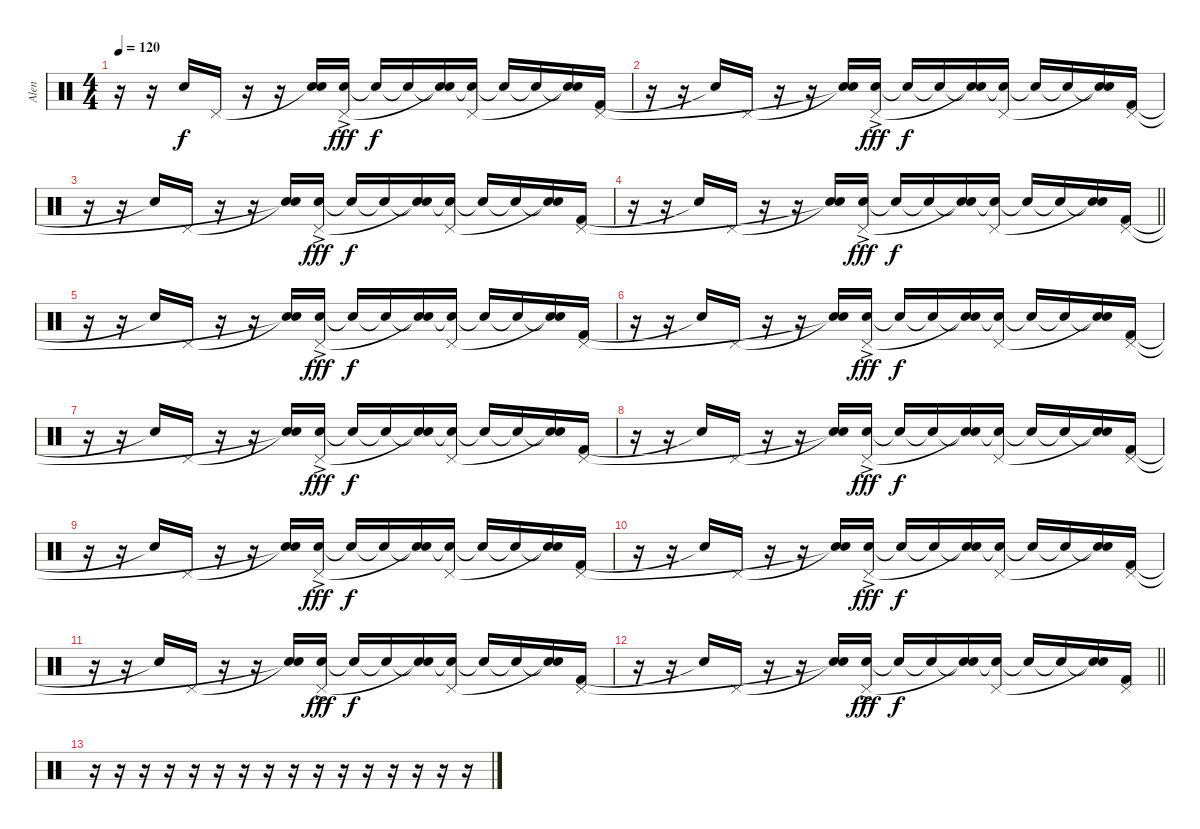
\track ("Alen" "Alen") {instrument percussion}
\staff {score}
\articulation defaults
\ts (4 4)
\tempo 120
\clef neutral
\ks c
r.16{dy f} r.16 "Snare (hit)"{t}.16 "Pedal Hi-Hat (hit)".16 r.16 r.16 ("Snare (hit)"{t} "Snare (hit)"{t}).16 ("Snare (hit) 2"{ac} "Pedal Hi-Hat (hit)").16{dy fff} "Snare (hit)"{t}.16{dy f} "Snare (hit)"{t}.16 ("Snare (hit)"{t} "Snare (hit)"{t}).16 ("Snare (hit)"{t} "Pedal Hi-Hat (hit)").16 "Snare (hit)"{t}.16 "Snare (hit)"{t}.16 ("Snare (hit)"{t} "Snare (hit)"{t}).16 ("Kick (hit) 2" "Pedal Hi-Hat (hit)").16 |
r.16 r.16 "Snare (hit)"{t}.16 "Pedal Hi-Hat (hit)".16 r.16 r.16 ("Snare (hit)"{t} "Snare (hit)"{t}).16 ("Snare (hit) 2"{ac} "Pedal Hi-Hat (hit)").16{dy fff} "Snare (hit)"{t}.16{dy f} "Snare (hit)"{t}.16 ("Snare (hit)"{t} "Snare (hit)"{t}).16 ("Snare (hit)"{t} "Pedal Hi-Hat (hit)").16 "Snare (hit)"{t}.16 "Snare (hit)"{t}.16 ("Snare (hit)"{t} "Snare (hit)"{t}).16 ("Kick (hit) 2" "Pedal Hi-Hat (hit)").16 |
r.16 r.16 "Snare (hit)"{t}.16 "Pedal Hi-Hat (hit)".16 r.16 r.16 ("Snare (hit)"{t} "Snare (hit)"{t}).16 ("Snare (hit) 2"{ac} "Pedal Hi-Hat (hit)").16{dy fff} "Snare (hit)"{t}.16{dy f} "Snare (hit)"{t}.16 ("Snare (hit)"{t} "Snare (hit)"{t}).16 ("Snare (hit)"{t} "Pedal Hi-Hat (hit)").16 "Snare (hit)"{t}.16 "Snare (hit)"{t}.16 ("Snare (hit)"{t} "Snare (hit)"{t}).16 ("Kick (hit) 2" "Pedal Hi-Hat (hit)").16 |
\barLineRight lightlight
r.16 r.16 "Snare (hit)"{t}.16 "Pedal Hi-Hat (hit)".16 r.16 r.16 ("Snare (hit)"{t} "Snare (hit)"{t}).16 ("Snare (hit) 2"{ac} "Pedal Hi-Hat (hit)").16{dy fff} "Snare (hit)"{t}.16{dy f} "Snare (hit)"{t}.16 ("Snare (hit)"{t} "Snare (hit)"{t}).16 ("Snare (hit)"{t} "Pedal Hi-Hat (hit)").16 "Snare (hit)"{t}.16 "Snare (hit)"{t}.16 ("Snare (hit)"{t} "Snare (hit)"{t}).16 ("Kick (hit) 2" "Pedal Hi-Hat (hit)").16 |
r.16 r.16 "Snare (hit)"{t}.16 "Pedal Hi-Hat (hit)".16 r.16 r.16 ("Snare (hit)"{t} "Snare (hit)"{t}).16 ("Snare (hit) 2"{ac} "Pedal Hi-Hat (hit)").16{dy fff} "Snare (hit)"{t}.16{dy f} "Snare (hit)"{t}.16 ("Snare (hit)"{t} "Snare (hit)"{t}).16 ("Snare (hit)"{t} "Pedal Hi-Hat (hit)").16 "Snare (hit)"{t}.16 "Snare (hit)"{t}.16 ("Snare (hit)"{t} "Snare (hit)"{t}).16 ("Kick (hit) 2" "Pedal Hi-Hat (hit)").16 |
r.16 r.16 "Snare (hit)"{t}.16 "Pedal Hi-Hat (hit)".16 r.16 r.16 ("Snare (hit)"{t} "Snare (hit)"{t}).16 ("Snare (hit) 2"{ac} "Pedal Hi-Hat (hit)").16{dy fff} "Snare (hit)"{t}.16{dy f} "Snare (hit)"{t}.16 ("Snare (hit)"{t} "Snare (hit)"{t}).16 ("Snare (hit)"{t} "Pedal Hi-Hat (hit)").16 "Snare (hit)"{t}.16 "Snare (hit)"{t}.16 ("Snare (hit)"{t} "Snare (hit)"{t}).16 ("Kick (hit) 2" "Pedal Hi-Hat (hit)").16 |
r.16 r.16 "Snare (hit)"{t}.16 "Pedal Hi-Hat (hit)".16 r.16 r.16 ("Snare (hit)"{t} "Snare (hit)"{t}).16 ("Snare (hit) 2"{ac} "Pedal Hi-Hat (hit)").16{dy fff} "Snare (hit)"{t}.16{dy f} "Snare (hit)"{t}.16 ("Snare (hit)"{t} "Snare (hit)"{t}).16 ("Snare (hit)"{t} "Pedal Hi-Hat (hit)").16 "Snare (hit)"{t}.16 "Snare (hit)"{t}.16 ("Snare (hit)"{t} "Snare (hit)"{t}).16 ("Kick (hit) 2" "Pedal Hi-Hat (hit)").16 |
r.16 r.16 "Snare (hit)"{t}.16 "Pedal Hi-Hat (hit)".16 r.16 r.16 ("Snare (hit)"{t} "Snare (hit)"{t}).16 ("Snare (hit) 2"{ac} "Pedal Hi-Hat (hit)").16{dy fff} "Snare (hit)"{t}.16{dy f} "Snare (hit)"{t}.16 ("Snare (hit)"{t} "Snare (hit)"{t}).16 ("Snare (hit)"{t} "Pedal Hi-Hat (hit)").16 "Snare (hit)"{t}.16 "Snare (hit)"{t}.16 ("Snare (hit)"{t} "Snare (hit)"{t}).16 ("Kick (hit) 2" "Pedal Hi-Hat (hit)").16 |
r.16 r.16 "Snare (hit)"{t}.16 "Pedal Hi-Hat (hit)".16 r.16 r.16 ("Snare (hit)"{t} "Snare (hit)"{t}).16 ("Snare (hit) 2"{ac} "Pedal Hi-Hat (hit)").16{dy fff} "Snare (hit)"{t}.16{dy f} "Snare (hit)"{t}.16 ("Snare (hit)"{t} "Snare (hit)"{t}).16 ("Snare (hit)"{t} "Pedal Hi-Hat (hit)").16 "Snare (hit)"{t}.16 "Snare (hit)"{t}.16 ("Snare (hit)"{t} "Snare (hit)"{t}).16 ("Kick (hit) 2" "Pedal Hi-Hat (hit)").16 |
r.16 r.16 "Snare (hit)"{t}.16 "Pedal Hi-Hat (hit)".16 r.16 r.16 ("Snare (hit)"{t} "Snare (hit)"{t}).16 ("Snare (hit) 2"{ac} "Pedal Hi-Hat (hit)").16{dy fff} "Snare (hit)"{t}.16{dy f} "Snare (hit)"{t}.16 ("Snare (hit)"{t} "Snare (hit)"{t}).16 ("Snare (hit)"{t} "Pedal Hi-Hat (hit)").16 "Snare (hit)"{t}.16 "Snare (hit)"{t}.16 ("Snare (hit)"{t} "Snare (hit)"{t}).16 ("Kick (hit) 2" "Pedal Hi-Hat (hit)").16 |
r.16 r.16 "Snare (hit)"{t}.16 "Pedal Hi-Hat (hit)".16 r.16 r.16 ("Snare (hit)"{t} "Snare (hit)"{t}).16 ("Snare (hit) 2"{ac} "Pedal Hi-Hat (hit)").16{dy fff} "Snare (hit)"{t}.16{dy f} "Snare (hit)"{t}.16 ("Snare (hit)"{t} "Snare (hit)"{t}).16 ("Snare (hit)"{t} "Pedal Hi-Hat (hit)").16 "Snare (hit)"{t}.16 "Snare (hit)"{t}.16 ("Snare (hit)"{t} "Snare (hit)"{t}).16 ("Kick (hit) 2" "Pedal Hi-Hat (hit)").16 |
\barLineRight lightlight
r.16 r.16 "Snare (hit)"{t}.16 "Pedal Hi-Hat (hit)".16 r.16 r.16 ("Snare (hit)"{t} "Snare (hit)"{t}).16 ("Snare (hit) 2"{ac} "Pedal Hi-Hat (hit)").16{dy fff} "Snare (hit)"{t}.16{dy f} "Snare (hit)"{t}.16 ("Snare (hit)"{t} "Snare (hit)"{t}).16 ("Snare (hit)"{t} "Pedal Hi-Hat (hit)").16 "Snare (hit)"{t}.16 "Snare (hit)"{t}.16 ("Snare (hit)"{t} "Snare (hit)"{t}).16 ("Kick (hit) 2" "Pedal Hi-Hat (hit)").16 |
r.16 r.16 r.16 r.16 r.16 r.16 r.16 r.16 r.16 r.16 r.16 r.16 r.16 r.16 r.16 r.16
